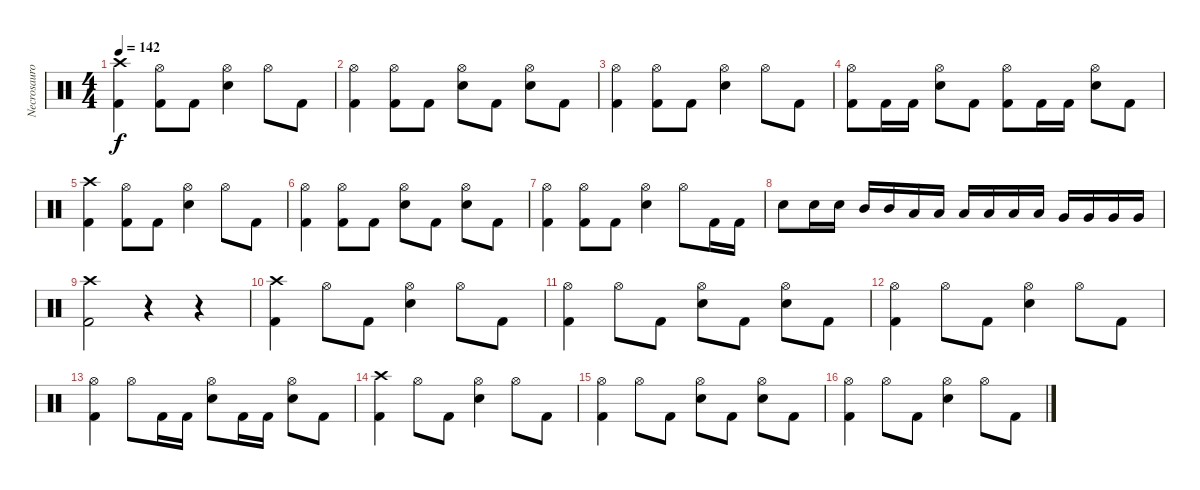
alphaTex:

\track ("Necrosauron" "Necrosauro") {instrument percussion}
\staff {score}
\articulation defaults
\ts (4 4)
\tempo 142
\clef neutral
\ks c
("Crash high (hit)" "Kick (hit) 2").4{dy f} ("Hi-Hat (open)" "Kick (hit) 2").8 "Kick (hit) 2".8 ("Hi-Hat (open)" "Snare (hit) 2").4 "Hi-Hat (open)".8 "Kick (hit) 2".8 |
("Hi-Hat (open)" "Kick (hit) 2").4 ("Hi-Hat (open)" "Kick (hit) 2").8 "Kick (hit) 2".8 ("Hi-Hat (open)" "Snare (hit) 2").8 "Kick (hit) 2".8 ("Hi-Hat (open)" "Snare (hit) 2").8 "Kick (hit) 2".8 |
("Hi-Hat (open)" "Kick (hit) 2").4 ("Hi-Hat (open)" "Kick (hit) 2").8 "Kick (hit) 2".8 ("Hi-Hat (open)" "Snare (hit) 2").4 "Hi-Hat (open)".8 "Kick (hit) 2".8 |
("Hi-Hat (open)" "Kick (hit) 2").8 "Kick (hit) 2".16 "Kick (hit) 2".16 ("Hi-Hat (open)" "Snare (hit) 2").8 "Kick (hit) 2".8 ("Hi-Hat (open)" "Kick (hit) 2").8 "Kick (hit) 2".16 "Kick (hit) 2".16 ("Hi-Hat (open)" "Snare (hit) 2").8 "Kick (hit) 2".8 |
("Crash high (hit)" "Kick (hit) 2").4 ("Hi-Hat (open)" "Kick (hit) 2").8 "Kick (hit) 2".8 ("Hi-Hat (open)" "Snare (hit) 2").4 "Hi-Hat (open)".8 "Kick (hit) 2".8 |
("Hi-Hat (open)" "Kick (hit) 2").4 ("Hi-Hat (open)" "Kick (hit) 2").8 "Kick (hit) 2".8 ("Hi-Hat (open)" "Snare (hit) 2").8 "Kick (hit) 2".8 ("Hi-Hat (open)" "Snare (hit) 2").8 "Kick (hit) 2".8 |
("Hi-Hat (open)" "Kick (hit) 2").4 ("Hi-Hat (open)" "Kick (hit) 2").8 "Kick (hit) 2".8 ("Hi-Hat (open)" "Snare (hit) 2").4 "Hi-Hat (open)".8 "Kick (hit) 2".16 "Kick (hit) 2".16 |
"Snare (hit) 2".8 "Snare (hit) 2".16 "Snare (hit) 2".16 "Mid Tom (hit)".16 "Mid Tom (hit)".16 "Low Tom (hit)".16 "Low Tom (hit)".16 "Low Tom (hit)".16 "Low Tom (hit)".16 "Low Tom (hit)".16 "Low Tom (hit)".16 "Very Low Tom (hit)".16 "Very Low Tom (hit)".16 "Very Low Tom (hit)".16 "Very Low Tom (hit)".16 |
("Crash high (hit)" "Kick (hit) 2").2 r.4 r.4 |
("Crash high (hit)" "Kick (hit) 2").4 "Hi-Hat (open)".8 "Kick (hit) 2".8 ("Hi-Hat (open)" "Snare (hit) 2").4 "Hi-Hat (open)".8 "Kick (hit) 2".8 |
("Hi-Hat (open)" "Kick (hit) 2").4 "Hi-Hat (open)".8 "Kick (hit) 2".8 ("Hi-Hat (open)" "Snare (hit) 2").8 "Kick (hit) 2".8 ("Hi-Hat (open)" "Snare (hit) 2").8 "Kick (hit) 2".8 |
("Hi-Hat (open)" "Kick (hit) 2").4 "Hi-Hat (open)".8 "Kick (hit) 2".8 ("Hi-Hat (open)" "Snare (hit) 2").4 "Hi-Hat (open)".8 "Kick (hit) 2".8 |
("Hi-Hat (open)" "Kick (hit) 2").4 "Hi-Hat (open)".8 "Kick (hit) 2".16 "Kick (hit) 2".16 ("Hi-Hat (open)" "Snare (hit) 2").8 "Kick (hit) 2".16 "Kick (hit) 2".16 ("Hi-Hat (open)" "Snare (hit) 2").8 "Kick (hit) 2".8 |
("Crash high (hit)" "Kick (hit) 2").4 "Hi-Hat (open)".8 "Kick (hit) 2".8 ("Hi-Hat (open)" "Snare (hit) 2").4 "Hi-Hat (open)".8 "Kick (hit) 2".8 |
("Hi-Hat (open)" "Kick (hit) 2").4 "Hi-Hat (open)".8 "Kick (hit) 2".8 ("Hi-Hat (open)" "Snare (hit) 2").8 "Kick (hit) 2".8 ("Hi-Hat (open)" "Snare (hit) 2").8 "Kick (hit) 2".8 |
("Hi-Hat (open)" "Kick (hit) 2").4 "Hi-Hat (open)".8 "Kick (hit) 2".8 ("Hi-Hat (open)" "Snare (hit) 2").4 "Hi-Hat (open)".8 "Kick (hit) 2".8
